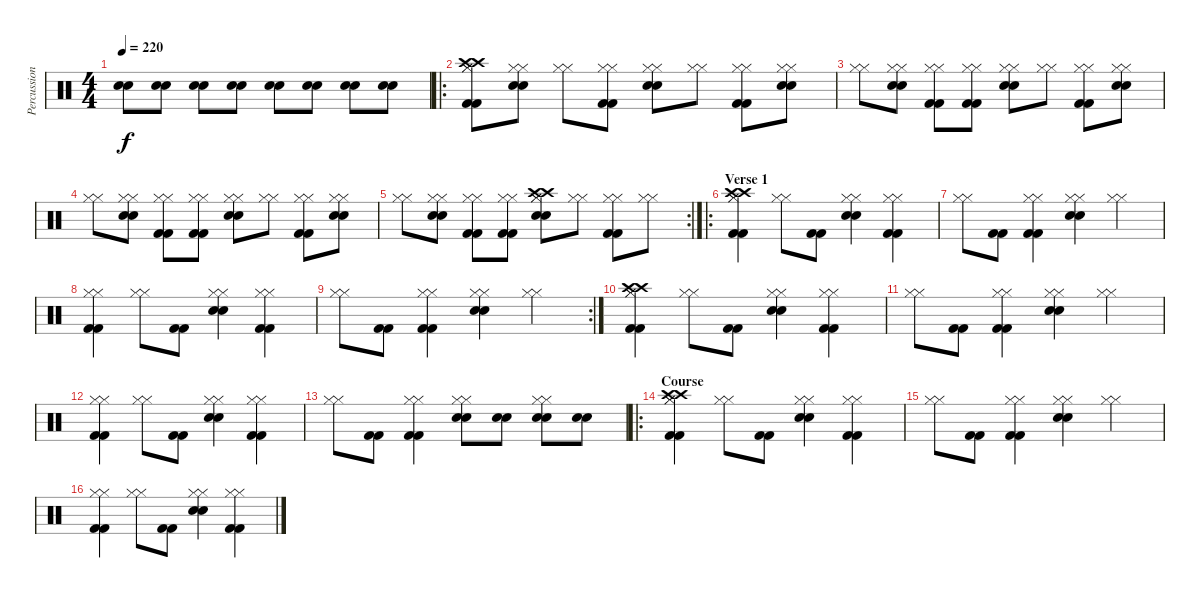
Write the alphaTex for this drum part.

\track ("Percussion" "Percussion") {instrument percussion}
\staff {score}
\articulation defaults
\ts (4 4)
\tempo 220
\clef neutral
\ks c
("Electric Snare (hit)" "Electric Snare (hit)").8{dy f} ("Electric Snare (hit)" "Electric Snare (hit)").8 ("Electric Snare (hit)" "Electric Snare (hit)").8 ("Electric Snare (hit)" "Electric Snare (hit)").8 ("Electric Snare (hit)" "Electric Snare (hit)").8 ("Electric Snare (hit)" "Electric Snare (hit)").8 ("Electric Snare (hit)" "Electric Snare (hit)").8 ("Electric Snare (hit)" "Electric Snare (hit)").8 |
\ro
("Hi-Hat (closed)" "Hi-Hat (closed)" "Kick (hit) 2" "Kick (hit) 2" "Crash high (hit)" "Crash high (hit)").8 ("Hi-Hat (closed)" "Hi-Hat (closed)" "Electric Snare (hit)" "Electric Snare (hit)").8 ("Hi-Hat (closed)" "Hi-Hat (closed)").8 ("Hi-Hat (closed)" "Hi-Hat (closed)" "Kick (hit) 2" "Kick (hit) 2").8 ("Hi-Hat (closed)" "Hi-Hat (closed)" "Electric Snare (hit)" "Electric Snare (hit)").8 ("Hi-Hat (closed)" "Hi-Hat (closed)").8 ("Hi-Hat (closed)" "Hi-Hat (closed)" "Kick (hit) 2" "Kick (hit) 2").8 ("Hi-Hat (closed)" "Hi-Hat (closed)" "Electric Snare (hit)" "Electric Snare (hit)").8 |
("Hi-Hat (closed)" "Hi-Hat (closed)").8 ("Hi-Hat (closed)" "Hi-Hat (closed)" "Electric Snare (hit)" "Electric Snare (hit)").8 ("Hi-Hat (closed)" "Hi-Hat (closed)" "Kick (hit) 2" "Kick (hit) 2").8 ("Hi-Hat (closed)" "Hi-Hat (closed)" "Kick (hit) 2" "Kick (hit) 2").8 ("Hi-Hat (closed)" "Hi-Hat (closed)" "Electric Snare (hit)" "Electric Snare (hit)").8 ("Hi-Hat (closed)" "Hi-Hat (closed)").8 ("Hi-Hat (closed)" "Hi-Hat (closed)" "Kick (hit) 2" "Kick (hit) 2").8 ("Hi-Hat (closed)" "Hi-Hat (closed)" "Electric Snare (hit)" "Electric Snare (hit)").8 |
("Hi-Hat (closed)" "Hi-Hat (closed)").8 ("Hi-Hat (closed)" "Hi-Hat (closed)" "Electric Snare (hit)" "Electric Snare (hit)").8 ("Hi-Hat (closed)" "Hi-Hat (closed)" "Kick (hit) 2" "Kick (hit) 2").8 ("Hi-Hat (closed)" "Hi-Hat (closed)" "Kick (hit) 2" "Kick (hit) 2").8 ("Hi-Hat (closed)" "Hi-Hat (closed)" "Electric Snare (hit)" "Electric Snare (hit)").8 ("Hi-Hat (closed)" "Hi-Hat (closed)").8 ("Hi-Hat (closed)" "Hi-Hat (closed)" "Kick (hit) 2" "Kick (hit) 2").8 ("Hi-Hat (closed)" "Hi-Hat (closed)" "Electric Snare (hit)" "Electric Snare (hit)").8 |
\rc 2
("Hi-Hat (closed)" "Hi-Hat (closed)").8 ("Hi-Hat (closed)" "Hi-Hat (closed)" "Electric Snare (hit)" "Electric Snare (hit)").8 ("Hi-Hat (closed)" "Hi-Hat (closed)" "Kick (hit) 2" "Kick (hit) 2").8 ("Hi-Hat (closed)" "Hi-Hat (closed)" "Kick (hit) 2" "Kick (hit) 2").8 ("Hi-Hat (closed)" "Hi-Hat (closed)" "Electric Snare (hit)" "Electric Snare (hit)" "Crash high (hit)" "Crash high (hit)").8 ("Hi-Hat (closed)" "Hi-Hat (closed)").8 ("Hi-Hat (closed)" "Hi-Hat (closed)" "Kick (hit) 2" "Kick (hit) 2").8 ("Hi-Hat (closed)" "Hi-Hat (closed)").8 |
\ro
\section ("" "Verse 1")
("Hi-Hat (closed)" "Hi-Hat (closed)" "Kick (hit) 2" "Kick (hit) 2" "Crash high (hit)" "Crash high (hit)").4 ("Hi-Hat (closed)" "Hi-Hat (closed)").8 ("Kick (hit) 2" "Kick (hit) 2").8 ("Hi-Hat (closed)" "Hi-Hat (closed)" "Electric Snare (hit)" "Electric Snare (hit)").4 ("Hi-Hat (closed)" "Hi-Hat (closed)" "Kick (hit) 2" "Kick (hit) 2").4 |
("Hi-Hat (closed)" "Hi-Hat (closed)").8 ("Kick (hit) 2" "Kick (hit) 2").8 ("Hi-Hat (closed)" "Hi-Hat (closed)" "Kick (hit) 2" "Kick (hit) 2").4 ("Hi-Hat (closed)" "Hi-Hat (closed)" "Electric Snare (hit)" "Electric Snare (hit)").4 ("Hi-Hat (closed)" "Hi-Hat (closed)").4 |
("Hi-Hat (closed)" "Hi-Hat (closed)" "Kick (hit) 2" "Kick (hit) 2").4 ("Hi-Hat (closed)" "Hi-Hat (closed)").8 ("Kick (hit) 2" "Kick (hit) 2").8 ("Hi-Hat (closed)" "Hi-Hat (closed)" "Electric Snare (hit)" "Electric Snare (hit)").4 ("Hi-Hat (closed)" "Hi-Hat (closed)" "Kick (hit) 2" "Kick (hit) 2").4 |
\rc 2
("Hi-Hat (closed)" "Hi-Hat (closed)").8 ("Kick (hit) 2" "Kick (hit) 2").8 ("Hi-Hat (closed)" "Hi-Hat (closed)" "Kick (hit) 2" "Kick (hit) 2").4 ("Hi-Hat (closed)" "Hi-Hat (closed)" "Electric Snare (hit)" "Electric Snare (hit)").4 ("Hi-Hat (closed)" "Hi-Hat (closed)").4 |
("Hi-Hat (closed)" "Hi-Hat (closed)" "Kick (hit) 2" "Kick (hit) 2" "Crash high (hit)" "Crash high (hit)").4 ("Hi-Hat (closed)" "Hi-Hat (closed)").8 ("Kick (hit) 2" "Kick (hit) 2").8 ("Hi-Hat (closed)" "Hi-Hat (closed)" "Electric Snare (hit)" "Electric Snare (hit)").4 ("Hi-Hat (closed)" "Hi-Hat (closed)" "Kick (hit) 2" "Kick (hit) 2").4 |
("Hi-Hat (closed)" "Hi-Hat (closed)").8 ("Kick (hit) 2" "Kick (hit) 2").8 ("Hi-Hat (closed)" "Hi-Hat (closed)" "Kick (hit) 2" "Kick (hit) 2").4 ("Hi-Hat (closed)" "Hi-Hat (closed)" "Electric Snare (hit)" "Electric Snare (hit)").4 ("Hi-Hat (closed)" "Hi-Hat (closed)").4 |
("Hi-Hat (closed)" "Hi-Hat (closed)" "Kick (hit) 2" "Kick (hit) 2").4 ("Hi-Hat (closed)" "Hi-Hat (closed)").8 ("Kick (hit) 2" "Kick (hit) 2").8 ("Hi-Hat (closed)" "Hi-Hat (closed)" "Electric Snare (hit)" "Electric Snare (hit)").4 ("Hi-Hat (closed)" "Hi-Hat (closed)" "Kick (hit) 2" "Kick (hit) 2").4 |
("Hi-Hat (closed)" "Hi-Hat (closed)").8 ("Kick (hit) 2" "Kick (hit) 2").8 ("Hi-Hat (closed)" "Hi-Hat (closed)" "Kick (hit) 2" "Kick (hit) 2").4 ("Hi-Hat (closed)" "Hi-Hat (closed)" "Electric Snare (hit)" "Electric Snare (hit)").8 ("Electric Snare (hit)" "Electric Snare (hit)").8 ("Hi-Hat (closed)" "Hi-Hat (closed)" "Electric Snare (hit)" "Electric Snare (hit)").8 ("Electric Snare (hit)" "Electric Snare (hit)").8 |
\ro
\section ("" "Course")
("Hi-Hat (closed)" "Hi-Hat (closed)" "Kick (hit) 2" "Kick (hit) 2" "Crash high (hit)" "Crash high (hit)").4 ("Hi-Hat (closed)" "Hi-Hat (closed)").8 ("Kick (hit) 2" "Kick (hit) 2").8 ("Hi-Hat (closed)" "Hi-Hat (closed)" "Electric Snare (hit)" "Electric Snare (hit)").4 ("Hi-Hat (closed)" "Hi-Hat (closed)" "Kick (hit) 2" "Kick (hit) 2").4 |
("Hi-Hat (closed)" "Hi-Hat (closed)").8 ("Kick (hit) 2" "Kick (hit) 2").8 ("Hi-Hat (closed)" "Hi-Hat (closed)" "Kick (hit) 2" "Kick (hit) 2").4 ("Hi-Hat (closed)" "Hi-Hat (closed)" "Electric Snare (hit)" "Electric Snare (hit)").4 ("Hi-Hat (closed)" "Hi-Hat (closed)").4 |
("Hi-Hat (closed)" "Hi-Hat (closed)" "Kick (hit) 2" "Kick (hit) 2").4 ("Hi-Hat (closed)" "Hi-Hat (closed)").8 ("Kick (hit) 2" "Kick (hit) 2").8 ("Hi-Hat (closed)" "Hi-Hat (closed)" "Electric Snare (hit)" "Electric Snare (hit)").4 ("Hi-Hat (closed)" "Hi-Hat (closed)" "Kick (hit) 2" "Kick (hit) 2").4
